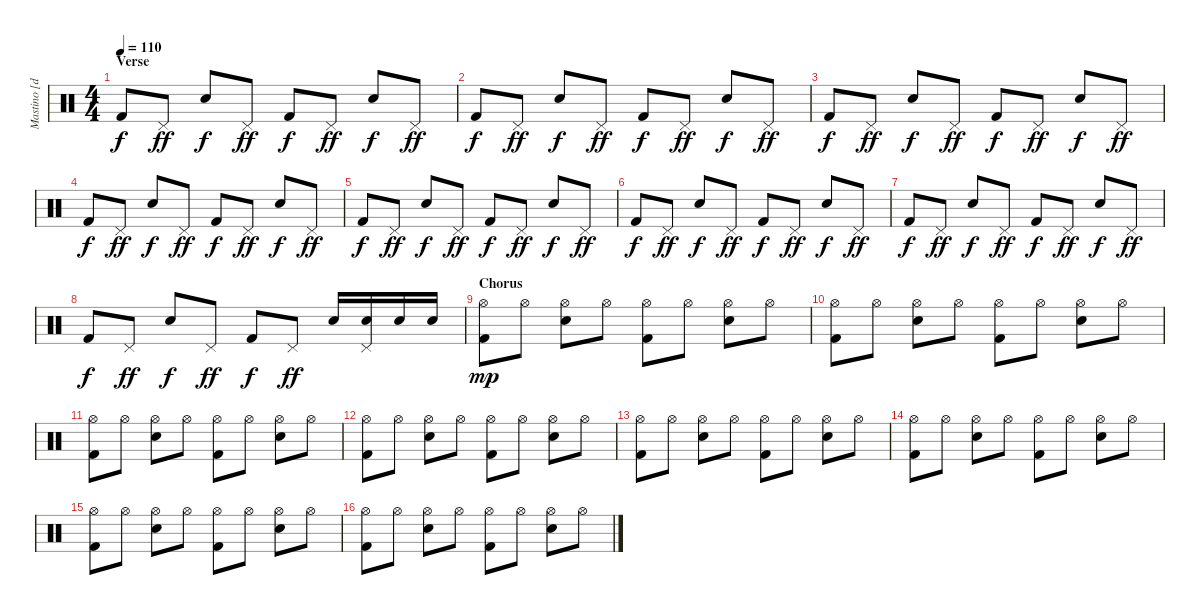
\track ("Mastino [drums]" "Mastino [d") {instrument percussion}
\staff {score}
\articulation defaults
\ts (4 4)
\section ("" "Verse")
\tempo 110
\clef neutral
\ks c "Kick (hit) 2".8{dy f} "Pedal Hi-Hat (hit)".8{dy ff} "Electric Snare (hit)".8{dy f} "Pedal Hi-Hat (hit)".8{dy ff} "Kick (hit) 2".8{dy f} "Pedal Hi-Hat (hit)".8{dy ff} "Electric Snare (hit)".8{dy f} "Pedal Hi-Hat (hit)".8{dy ff}
|
"Kick (hit) 2".8{dy f} "Pedal Hi-Hat (hit)".8{dy ff} "Electric Snare (hit)".8{dy f} "Pedal Hi-Hat (hit)".8{dy ff} "Kick (hit) 2".8{dy f} "Pedal Hi-Hat (hit)".8{dy ff} "Electric Snare (hit)".8{dy f} "Pedal Hi-Hat (hit)".8{dy ff} |
"Kick (hit) 2".8{dy f} "Pedal Hi-Hat (hit)".8{dy ff} "Electric Snare (hit)".8{dy f} "Pedal Hi-Hat (hit)".8{dy ff} "Kick (hit) 2".8{dy f} "Pedal Hi-Hat (hit)".8{dy ff} "Electric Snare (hit)".8{dy f} "Pedal Hi-Hat (hit)".8{dy ff} |
"Kick (hit) 2".8{dy f} "Pedal Hi-Hat (hit)".8{dy ff} "Electric Snare (hit)".8{dy f} "Pedal Hi-Hat (hit)".8{dy ff} "Kick (hit) 2".8{dy f} "Pedal Hi-Hat (hit)".8{dy ff} "Electric Snare (hit)".8{dy f} "Pedal Hi-Hat (hit)".8{dy ff} |
"Kick (hit) 2".8{dy f} "Pedal Hi-Hat (hit)".8{dy ff} "Electric Snare (hit)".8{dy f} "Pedal Hi-Hat (hit)".8{dy ff} "Kick (hit) 2".8{dy f} "Pedal Hi-Hat (hit)".8{dy ff} "Electric Snare (hit)".8{dy f} "Pedal Hi-Hat (hit)".8{dy ff} |
"Kick (hit) 2".8{dy f} "Pedal Hi-Hat (hit)".8{dy ff} "Electric Snare (hit)".8{dy f} "Pedal Hi-Hat (hit)".8{dy ff} "Kick (hit) 2".8{dy f} "Pedal Hi-Hat (hit)".8{dy ff} "Electric Snare (hit)".8{dy f} "Pedal Hi-Hat (hit)".8{dy ff} |
"Kick (hit) 2".8{dy f} "Pedal Hi-Hat (hit)".8{dy ff} "Electric Snare (hit)".8{dy f} "Pedal Hi-Hat (hit)".8{dy ff} "Kick (hit) 2".8{dy f} "Pedal Hi-Hat (hit)".8{dy ff} "Electric Snare (hit)".8{dy f} "Pedal Hi-Hat (hit)".8{dy ff} |
"Kick (hit) 2".8{dy f} "Pedal Hi-Hat (hit)".8{dy ff} "Electric Snare (hit)".8{dy f} "Pedal Hi-Hat (hit)".8{dy ff} "Kick (hit) 2".8{dy f} "Pedal Hi-Hat (hit)".8{dy ff} "Electric Snare (hit)".16 ("Pedal Hi-Hat (hit)" "Electric Snare (hit)").16 "Electric Snare (hit)".16 "Electric Snare (hit)".16 |
\section ("" "Chorus")
("Hi-Hat (open)" "Kick (hit) 2").8{dy mp} "Hi-Hat (open)".8 ("Hi-Hat (open)" "Electric Snare (hit)").8 "Hi-Hat (open)".8 ("Hi-Hat (open)" "Kick (hit) 2").8 "Hi-Hat (open)".8 ("Hi-Hat (open)" "Electric Snare (hit)").8 "Hi-Hat (open)".8 |
("Hi-Hat (open)" "Kick (hit) 2").8 "Hi-Hat (open)".8 ("Hi-Hat (open)" "Electric Snare (hit)").8 "Hi-Hat (open)".8 ("Hi-Hat (open)" "Kick (hit) 2").8 "Hi-Hat (open)".8 ("Hi-Hat (open)" "Electric Snare (hit)").8 "Hi-Hat (open)".8 |
("Hi-Hat (open)" "Kick (hit) 2").8 "Hi-Hat (open)".8 ("Hi-Hat (open)" "Electric Snare (hit)").8 "Hi-Hat (open)".8 ("Hi-Hat (open)" "Kick (hit) 2").8 "Hi-Hat (open)".8 ("Hi-Hat (open)" "Electric Snare (hit)").8 "Hi-Hat (open)".8 |
("Hi-Hat (open)" "Kick (hit) 2").8 "Hi-Hat (open)".8 ("Hi-Hat (open)" "Electric Snare (hit)").8 "Hi-Hat (open)".8 ("Hi-Hat (open)" "Kick (hit) 2").8 "Hi-Hat (open)".8 ("Hi-Hat (open)" "Electric Snare (hit)").8 "Hi-Hat (open)".8 |
("Hi-Hat (open)" "Kick (hit) 2").8 "Hi-Hat (open)".8 ("Hi-Hat (open)" "Electric Snare (hit)").8 "Hi-Hat (open)".8 ("Hi-Hat (open)" "Kick (hit) 2").8 "Hi-Hat (open)".8 ("Hi-Hat (open)" "Electric Snare (hit)").8 "Hi-Hat (open)".8 |
("Hi-Hat (open)" "Kick (hit) 2").8 "Hi-Hat (open)".8 ("Hi-Hat (open)" "Electric Snare (hit)").8 "Hi-Hat (open)".8 ("Hi-Hat (open)" "Kick (hit) 2").8 "Hi-Hat (open)".8 ("Hi-Hat (open)" "Electric Snare (hit)").8 "Hi-Hat (open)".8 |
("Hi-Hat (open)" "Kick (hit) 2").8 "Hi-Hat (open)".8 ("Hi-Hat (open)" "Electric Snare (hit)").8 "Hi-Hat (open)".8 ("Hi-Hat (open)" "Kick (hit) 2").8 "Hi-Hat (open)".8 ("Hi-Hat (open)" "Electric Snare (hit)").8 "Hi-Hat (open)".8 |
("Hi-Hat (open)" "Kick (hit) 2").8 "Hi-Hat (open)".8 ("Hi-Hat (open)" "Electric Snare (hit)").8 "Hi-Hat (open)".8 ("Hi-Hat (open)" "Kick (hit) 2").8 "Hi-Hat (open)".8 ("Hi-Hat (open)" "Electric Snare (hit)").8 "Hi-Hat (open)".8
